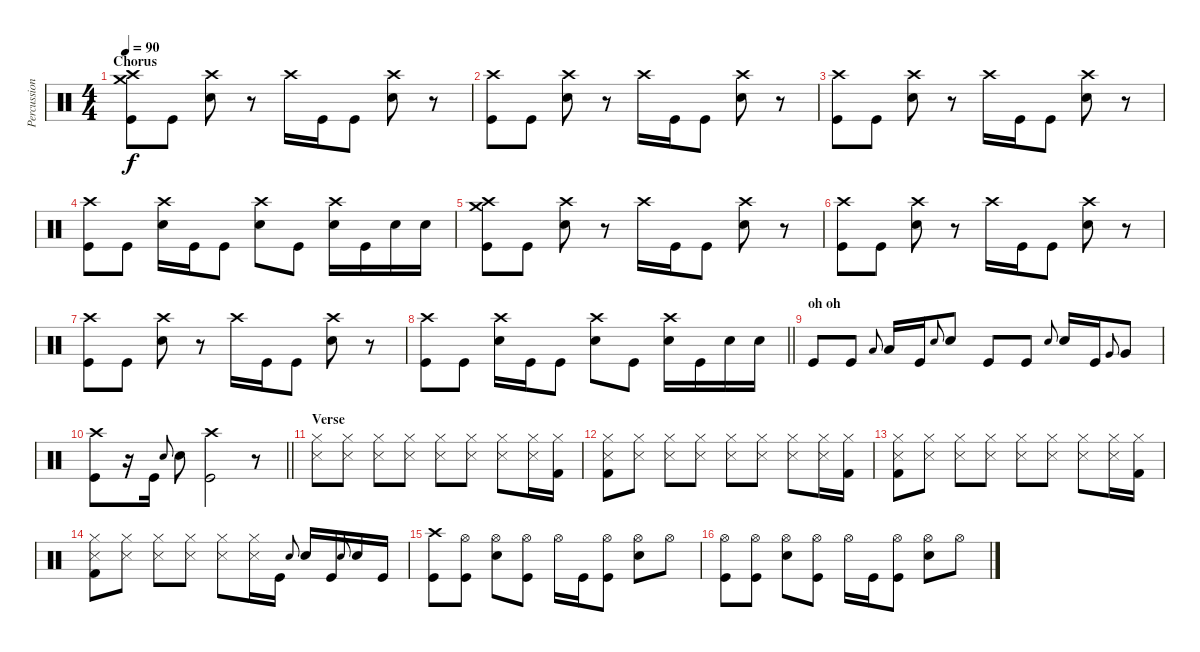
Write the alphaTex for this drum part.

\track ("Percussion" "Percussion") {instrument percussion}
\staff {score}
\articulation defaults
\ts (4 4)
\section ("" "Chorus")
\tempo 90
\clef neutral
\ks c
("Crash high (hit)" "Crash medium (hit)" "Kick (hit)").8{dy f volume 11} "Kick (hit)".8 ("Crash high (hit)" "Electric Snare (hit)").8 r.8 "Crash high (hit)".16 "Kick (hit)".16 "Kick (hit)".8 ("Crash high (hit)" "Electric Snare (hit)").8 r.8 |
("Crash high (hit)" "Kick (hit)").8 "Kick (hit)".8 ("Crash high (hit)" "Electric Snare (hit)").8 r.8 "Crash high (hit)".16 "Kick (hit)".16 "Kick (hit)".8 ("Crash high (hit)" "Electric Snare (hit)").8 r.8 |
("Crash high (hit)" "Kick (hit)").8 "Kick (hit)".8 ("Crash high (hit)" "Electric Snare (hit)").8 r.8 "Crash high (hit)".16 "Kick (hit)".16 "Kick (hit)".8 ("Crash high (hit)" "Electric Snare (hit)").8 r.8 |
("Crash high (hit)" "Kick (hit)").8 "Kick (hit)".8 ("Crash high (hit)" "Electric Snare (hit)").16 "Kick (hit)".16 "Kick (hit)".8 ("Crash high (hit)" "Electric Snare (hit)").8 "Kick (hit)".8 ("Crash high (hit)" "Electric Snare (hit)").16 "Kick (hit)".16 "Electric Snare (hit)".16 "Electric Snare (hit)".16 |
("Crash high (hit)" "Crash medium (hit)" "Kick (hit)").8 "Kick (hit)".8 ("Crash high (hit)" "Electric Snare (hit)").8 r.8 "Crash high (hit)".16 "Kick (hit)".16 "Kick (hit)".8 ("Crash high (hit)" "Electric Snare (hit)").8 r.8 |
("Crash high (hit)" "Kick (hit)").8 "Kick (hit)".8 ("Crash high (hit)" "Electric Snare (hit)").8 r.8 "Crash high (hit)".16 "Kick (hit)".16 "Kick (hit)".8 ("Crash high (hit)" "Electric Snare (hit)").8 r.8 |
("Crash high (hit)" "Kick (hit)").8 "Kick (hit)".8 ("Crash high (hit)" "Electric Snare (hit)").8 r.8 "Crash high (hit)".16 "Kick (hit)".16 "Kick (hit)".8 ("Crash high (hit)" "Electric Snare (hit)").8 r.8 |
\barLineRight lightlight
("Crash high (hit)" "Kick (hit)").8 "Kick (hit)".8 ("Crash high (hit)" "Electric Snare (hit)").16 "Kick (hit)".16 "Kick (hit)".8 ("Crash high (hit)" "Electric Snare (hit)").8 "Kick (hit)".8 ("Crash high (hit)" "Electric Snare (hit)").16 "Kick (hit)".16 "Electric Snare (hit)".16 "Electric Snare (hit)".16 |
\section ("" "oh oh")
"Kick (hit)".8 "Kick (hit)".8 "Low Tom (hit)".8{gr onbeat} "Low Tom (hit)".16 "Kick (hit)".16 "Electric Snare (hit)".8{gr onbeat} "Electric Snare (hit)".8 "Kick (hit)".8 "Kick (hit)".8 "Electric Snare (hit)".8{gr onbeat} "Electric Snare (hit)".16 "Kick (hit)".16 "Very Low Tom (hit)".8{gr onbeat} "Very Low Tom (hit)".8 |
\barLineRight lightlight
("Crash high (hit)" "Kick (hit)").8 r.16 "Kick (hit)".16 "Electric Snare (hit)".8{gr onbeat} "Electric Snare (hit)".8 ("Crash high (hit)" "Kick (hit)").2 r.8 |
\section ("" "Verse")
("Hi-Hat (closed)" "Snare (side stick) 3").8 ("Hi-Hat (closed)" "Snare (side stick) 3").8 ("Hi-Hat (closed)" "Snare (side stick) 3").8 ("Hi-Hat (closed)" "Snare (side stick) 3").8 ("Hi-Hat (closed)" "Snare (side stick) 3").8 ("Hi-Hat (closed)" "Snare (side stick) 3").8 ("Hi-Hat (closed)" "Snare (side stick) 3").8 ("Hi-Hat (closed)" "Snare (side stick) 3").16 ("Hi-Hat (closed)" "Kick (hit) 2").16 |
("Hi-Hat (closed)" "Snare (side stick) 3" "Kick (hit) 2").8 ("Hi-Hat (closed)" "Snare (side stick) 3").8 ("Hi-Hat (closed)" "Snare (side stick) 3").8 ("Hi-Hat (closed)" "Snare (side stick) 3").8 ("Hi-Hat (closed)" "Snare (side stick) 3").8 ("Hi-Hat (closed)" "Snare (side stick) 3").8 ("Hi-Hat (closed)" "Snare (side stick) 3").8 ("Hi-Hat (closed)" "Snare (side stick) 3").16 ("Hi-Hat (closed)" "Kick (hit) 2").16 |
("Hi-Hat (closed)" "Snare (side stick) 3" "Kick (hit) 2").8 ("Hi-Hat (closed)" "Snare (side stick) 3").8 ("Hi-Hat (closed)" "Snare (side stick) 3").8 ("Hi-Hat (closed)" "Snare (side stick) 3").8 ("Hi-Hat (closed)" "Snare (side stick) 3").8 ("Hi-Hat (closed)" "Snare (side stick) 3").8 ("Hi-Hat (closed)" "Snare (side stick) 3").8 ("Hi-Hat (closed)" "Snare (side stick) 3").16 ("Hi-Hat (closed)" "Kick (hit) 2").16 |
("Hi-Hat (closed)" "Snare (side stick) 3" "Kick (hit) 2").8 ("Hi-Hat (closed)" "Snare (side stick) 3").8 ("Hi-Hat (closed)" "Snare (side stick) 3").8 ("Hi-Hat (closed)" "Snare (side stick) 3").8 ("Hi-Hat (closed)" "Snare (side stick) 3").8 ("Hi-Hat (closed)" "Snare (side stick) 3").16 "Kick (hit)".16 "Electric Snare (hit)".8{gr onbeat} "Electric Snare (hit)".16 "Kick (hit)".16 "Electric Snare (hit)".8{gr onbeat} "Electric Snare (hit)".16 "Kick (hit)".16 |
("Crash high (hit)" "Kick (hit)").8 ("Hi-Hat (open)" "Kick (hit)").8 ("Hi-Hat (open)" "Electric Snare (hit)").8 ("Hi-Hat (open)" "Kick (hit)").8 "Hi-Hat (open)".16 "Kick (hit)".16 ("Hi-Hat (open)" "Kick (hit)").8 ("Hi-Hat (open)" "Electric Snare (hit)").8 "Hi-Hat (open)".8 |
("Hi-Hat (open)" "Kick (hit)").8 ("Hi-Hat (open)" "Kick (hit)").8 ("Hi-Hat (open)" "Electric Snare (hit)").8 ("Hi-Hat (open)" "Kick (hit)").8 "Hi-Hat (open)".16 "Kick (hit)".16 ("Hi-Hat (open)" "Kick (hit)").8 ("Hi-Hat (open)" "Electric Snare (hit)").8 "Hi-Hat (open)".8
